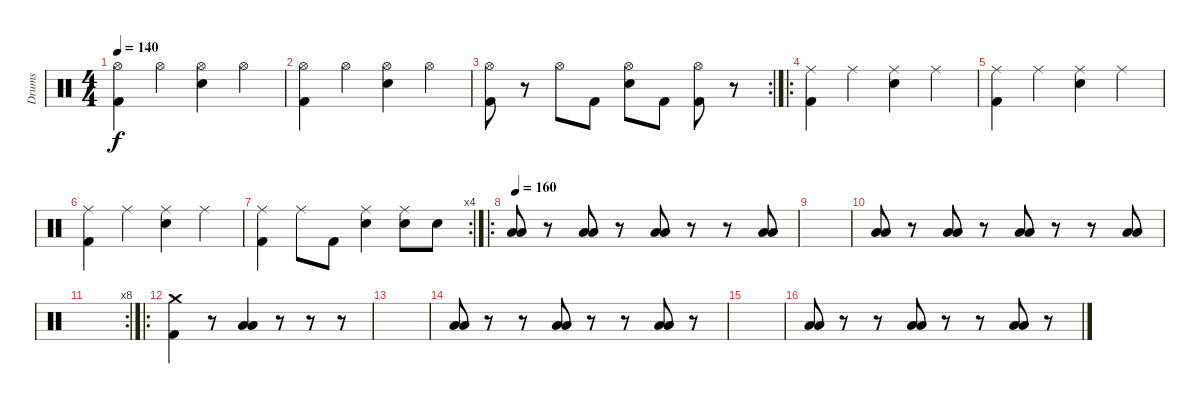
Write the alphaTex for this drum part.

\track ("Drums" "Drums") {instrument percussion}
\staff {score}
\articulation defaults
\ts (4 4)
\tempo 140
\clef neutral
\ks c
("Kick (hit) 2" "Hi-Hat (open)").4{dy f} "Hi-Hat (open)".4 ("Snare (hit) 2" "Hi-Hat (open)").4 "Hi-Hat (open)".4 |
("Kick (hit) 2" "Hi-Hat (open)").4 "Hi-Hat (open)".4 ("Snare (hit) 2" "Hi-Hat (open)").4 "Hi-Hat (open)".4 |
\rc 2
("Kick (hit) 2" "Hi-Hat (open)").8 r.8 "Hi-Hat (open)".8 "Kick (hit) 2".8 ("Snare (hit) 2" "Hi-Hat (open)").8 "Kick (hit) 2".8 ("Kick (hit) 2" "Hi-Hat (open)").8 r.8 |
\ro
("Kick (hit) 2" "Ride (middle)").4 "Ride (middle)".4 ("Snare (hit) 2" "Ride (middle)").4 "Ride (middle)".4 |
("Kick (hit) 2" "Ride (middle)").4 "Ride (middle)".4 ("Snare (hit) 2" "Ride (middle)").4 "Ride (middle)".4 |
("Kick (hit) 2" "Ride (middle)").4 "Ride (middle)".4 ("Snare (hit) 2" "Ride (middle)").4 "Ride (middle)".4 |
\rc 4
("Kick (hit) 2" "Ride (middle)").4 "Ride (middle)".8 "Kick (hit) 2".8 ("Snare (hit) 2" "Ride (middle)").4 ("Snare (hit) 2" "Ride (middle)").8 "Snare (hit) 2".8 |
\ro
\tempo 150
\tempo 160
("Low Floor Tom (hit)" "Low Floor Tom (hit)").8 r.8 ("Low Floor Tom (hit)" "Low Floor Tom (hit)").8 r.8 ("Low Floor Tom (hit)" "Low Floor Tom (hit)").8 r.8 r.8 ("Low Floor Tom (hit)" "Low Floor Tom (hit)").8 |
|
("Low Floor Tom (hit)" "Low Floor Tom (hit)").8 r.8 ("Low Floor Tom (hit)" "Low Floor Tom (hit)").8 r.8 ("Low Floor Tom (hit)" "Low Floor Tom (hit)").8 r.8 r.8 ("Low Floor Tom (hit)" "Low Floor Tom (hit)").8 |
\rc 8
|
\ro
("Kick (hit) 2" "Crash medium (hit)").4 r.8 ("Low Floor Tom (hit)" "Low Floor Tom (hit)").4 r.8 r.8 r.8 |
|
("Low Floor Tom (hit)" "Low Floor Tom (hit)").8 r.8 r.8 ("Low Floor Tom (hit)" "Low Floor Tom (hit)").8 r.8 r.8 ("Low Floor Tom (hit)" "Low Floor Tom (hit)").8 r.8 |
|
("Low Floor Tom (hit)" "Low Floor Tom (hit)").8 r.8 r.8 ("Low Floor Tom (hit)" "Low Floor Tom (hit)").8 r.8 r.8 ("Low Floor Tom (hit)" "Low Floor Tom (hit)").8 r.8
